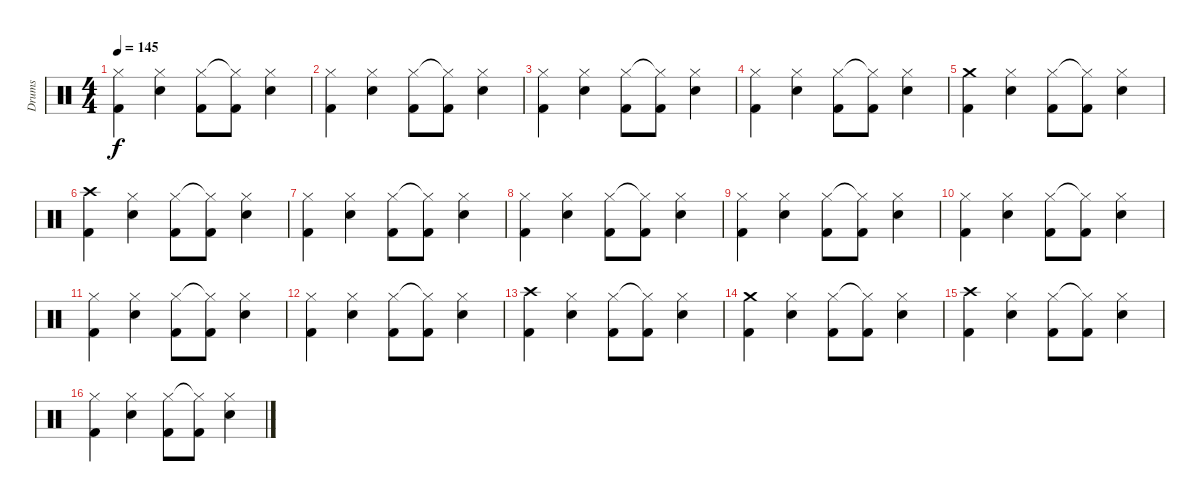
\track ("Drums" "Drums") {instrument percussion}
\staff {score}
\articulation defaults
\ts (4 4)
\tempo 145
\clef neutral
\ks c
("Hi-Hat (closed)" "Kick (hit) 2").4{dy f} ("Hi-Hat (closed)" "Electric Snare (hit)").4 ("Hi-Hat (closed)" "Kick (hit) 2").8 ("Hi-Hat (closed)"{t} "Kick (hit) 2").8 ("Hi-Hat (closed)" "Electric Snare (hit)").4 |
("Hi-Hat (closed)" "Kick (hit) 2").4 ("Hi-Hat (closed)" "Electric Snare (hit)").4 ("Hi-Hat (closed)" "Kick (hit) 2").8 ("Hi-Hat (closed)"{t} "Kick (hit) 2").8 ("Hi-Hat (closed)" "Electric Snare (hit)").4 |
("Hi-Hat (closed)" "Kick (hit) 2").4 ("Hi-Hat (closed)" "Electric Snare (hit)").4 ("Hi-Hat (closed)" "Kick (hit) 2").8 ("Hi-Hat (closed)"{t} "Kick (hit) 2").8 ("Hi-Hat (closed)" "Electric Snare (hit)").4 |
("Hi-Hat (closed)" "Kick (hit) 2").4 ("Hi-Hat (closed)" "Electric Snare (hit)").4 ("Hi-Hat (closed)" "Kick (hit) 2").8 ("Hi-Hat (closed)"{t} "Kick (hit) 2").8 ("Hi-Hat (closed)" "Electric Snare (hit)").4 |
("Crash medium (hit)" "Kick (hit) 2").4 ("Hi-Hat (closed)" "Electric Snare (hit)").4 ("Hi-Hat (closed)" "Kick (hit) 2").8 ("Hi-Hat (closed)"{t} "Kick (hit) 2").8 ("Hi-Hat (closed)" "Electric Snare (hit)").4 |
("Crash high (hit)" "Kick (hit) 2").4 ("Hi-Hat (closed)" "Electric Snare (hit)").4 ("Hi-Hat (closed)" "Kick (hit) 2").8 ("Hi-Hat (closed)"{t} "Kick (hit) 2").8 ("Hi-Hat (closed)" "Electric Snare (hit)").4 |
("Hi-Hat (closed)" "Kick (hit) 2").4 ("Hi-Hat (closed)" "Electric Snare (hit)").4 ("Hi-Hat (closed)" "Kick (hit) 2").8 ("Hi-Hat (closed)"{t} "Kick (hit) 2").8 ("Hi-Hat (closed)" "Electric Snare (hit)").4 |
("Hi-Hat (closed)" "Kick (hit) 2").4 ("Hi-Hat (closed)" "Electric Snare (hit)").4 ("Hi-Hat (closed)" "Kick (hit) 2").8 ("Hi-Hat (closed)"{t} "Kick (hit) 2").8 ("Hi-Hat (closed)" "Electric Snare (hit)").4 |
("Hi-Hat (closed)" "Kick (hit) 2").4 ("Hi-Hat (closed)" "Electric Snare (hit)").4 ("Hi-Hat (closed)" "Kick (hit) 2").8 ("Hi-Hat (closed)"{t} "Kick (hit) 2").8 ("Hi-Hat (closed)" "Electric Snare (hit)").4 |
("Hi-Hat (closed)" "Kick (hit) 2").4 ("Hi-Hat (closed)" "Electric Snare (hit)").4 ("Hi-Hat (closed)" "Kick (hit) 2").8 ("Hi-Hat (closed)"{t} "Kick (hit) 2").8 ("Hi-Hat (closed)" "Electric Snare (hit)").4 |
("Hi-Hat (closed)" "Kick (hit) 2").4 ("Hi-Hat (closed)" "Electric Snare (hit)").4 ("Hi-Hat (closed)" "Kick (hit) 2").8 ("Hi-Hat (closed)"{t} "Kick (hit) 2").8 ("Hi-Hat (closed)" "Electric Snare (hit)").4 |
("Hi-Hat (closed)" "Kick (hit) 2").4 ("Hi-Hat (closed)" "Electric Snare (hit)").4 ("Hi-Hat (closed)" "Kick (hit) 2").8 ("Hi-Hat (closed)"{t} "Kick (hit) 2").8 ("Hi-Hat (closed)" "Electric Snare (hit)").4 |
("Crash high (hit)" "Kick (hit) 2").4 ("Hi-Hat (closed)" "Electric Snare (hit)").4 ("Hi-Hat (closed)" "Kick (hit) 2").8 ("Hi-Hat (closed)"{t} "Kick (hit) 2").8 ("Hi-Hat (closed)" "Electric Snare (hit)").4 |
("Crash medium (hit)" "Kick (hit) 2").4 ("Hi-Hat (closed)" "Electric Snare (hit)").4 ("Hi-Hat (closed)" "Kick (hit) 2").8 ("Hi-Hat (closed)"{t} "Kick (hit) 2").8 ("Hi-Hat (closed)" "Electric Snare (hit)").4 |
("Crash high (hit)" "Kick (hit) 2").4 ("Hi-Hat (closed)" "Electric Snare (hit)").4 ("Hi-Hat (closed)" "Kick (hit) 2").8 ("Hi-Hat (closed)"{t} "Kick (hit) 2").8 ("Hi-Hat (closed)" "Electric Snare (hit)").4 |
("Hi-Hat (closed)" "Kick (hit) 2").4 ("Hi-Hat (closed)" "Electric Snare (hit)").4 ("Hi-Hat (closed)" "Kick (hit) 2").8 ("Hi-Hat (closed)"{t} "Kick (hit) 2").8 ("Hi-Hat (closed)" "Electric Snare (hit)").4
